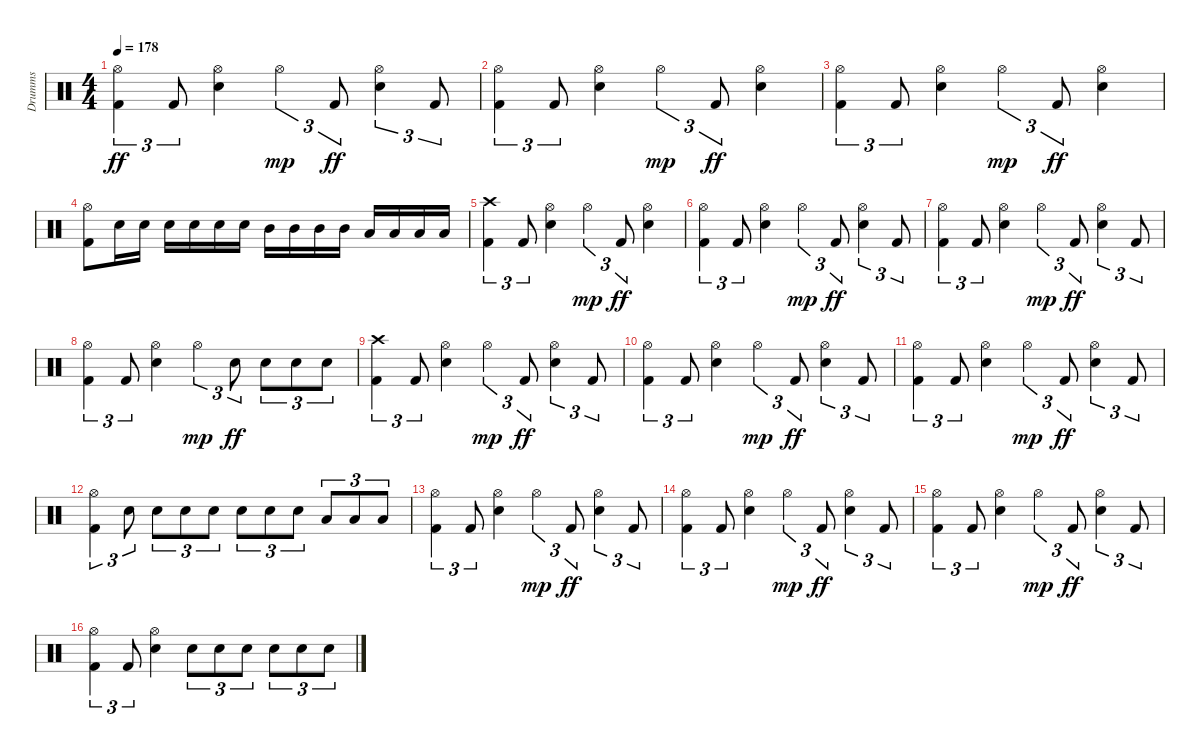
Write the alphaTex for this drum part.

\track ("Drumms" "Drumms") {instrument percussion}
\staff {score}
\articulation defaults
\ts (4 4)
\tempo 178
\clef neutral
\ks c
("Hi-Hat (open)" "Kick (hit) 2").4{tu (3 2) dy ff} "Kick (hit) 2".8{tu (3 2)} ("Hi-Hat (open)" "Electric Snare (hit)").4 "Hi-Hat (open)".4{tu (3 2) dy mp} "Kick (hit) 2".8{tu (3 2) dy ff} ("Hi-Hat (open)" "Electric Snare (hit)").4{tu (3 2)} "Kick (hit) 2".8{tu (3 2)} |
("Hi-Hat (open)" "Kick (hit) 2").4{tu (3 2)} "Kick (hit) 2".8{tu (3 2)} ("Hi-Hat (open)" "Electric Snare (hit)").4 "Hi-Hat (open)".4{tu (3 2) dy mp} "Kick (hit) 2".8{tu (3 2) dy ff} ("Hi-Hat (open)" "Electric Snare (hit)").4 |
("Hi-Hat (open)" "Kick (hit) 2").4{tu (3 2)} "Kick (hit) 2".8{tu (3 2)} ("Hi-Hat (open)" "Electric Snare (hit)").4 "Hi-Hat (open)".4{tu (3 2) dy mp} "Kick (hit) 2".8{tu (3 2) dy ff} ("Hi-Hat (open)" "Electric Snare (hit)").4 |
("Hi-Hat (open)" "Kick (hit) 2").8 "Electric Snare (hit)".16 "Electric Snare (hit)".16 "Electric Snare (hit)".16 "Electric Snare (hit)".16 "Electric Snare (hit)".16 "Electric Snare (hit)".16 "Mid Tom (hit)".16 "Mid Tom (hit)".16 "Mid Tom (hit)".16 "Mid Tom (hit)".16 "Low Tom (hit)".16 "Low Tom (hit)".16 "Low Tom (hit)".16 "Low Tom (hit)".16 |
("Crash high (hit)" "Kick (hit) 2").4{tu (3 2)} "Kick (hit) 2".8{tu (3 2)} ("Hi-Hat (open)" "Electric Snare (hit)").4 "Hi-Hat (open)".4{tu (3 2) dy mp} "Kick (hit) 2".8{tu (3 2) dy ff} ("Hi-Hat (open)" "Electric Snare (hit)").4 |
("Hi-Hat (open)" "Kick (hit) 2").4{tu (3 2)} "Kick (hit) 2".8{tu (3 2)} ("Hi-Hat (open)" "Electric Snare (hit)").4 "Hi-Hat (open)".4{tu (3 2) dy mp} "Kick (hit) 2".8{tu (3 2) dy ff} ("Hi-Hat (open)" "Electric Snare (hit)").4{tu (3 2)} "Kick (hit) 2".8{tu (3 2)} |
("Hi-Hat (open)" "Kick (hit) 2").4{tu (3 2)} "Kick (hit) 2".8{tu (3 2)} ("Hi-Hat (open)" "Electric Snare (hit)").4 "Hi-Hat (open)".4{tu (3 2) dy mp} "Kick (hit) 2".8{tu (3 2) dy ff} ("Hi-Hat (open)" "Electric Snare (hit)").4{tu (3 2)} "Kick (hit) 2".8{tu (3 2)} |
("Hi-Hat (open)" "Kick (hit) 2").4{tu (3 2)} "Kick (hit) 2".8{tu (3 2)} ("Hi-Hat (open)" "Electric Snare (hit)").4 "Hi-Hat (open)".4{tu (3 2) dy mp} "Electric Snare (hit)".8{tu (3 2) dy ff} "Electric Snare (hit)".8{tu (3 2)} "Electric Snare (hit)".8{tu (3 2)} "Electric Snare (hit)".8{tu (3 2)} |
("Crash high (hit)" "Kick (hit) 2").4{tu (3 2)} "Kick (hit) 2".8{tu (3 2)} ("Hi-Hat (open)" "Electric Snare (hit)").4 "Hi-Hat (open)".4{tu (3 2) dy mp} "Kick (hit) 2".8{tu (3 2) dy ff} ("Hi-Hat (open)" "Electric Snare (hit)").4{tu (3 2)} "Kick (hit) 2".8{tu (3 2)} |
("Hi-Hat (open)" "Kick (hit) 2").4{tu (3 2)} "Kick (hit) 2".8{tu (3 2)} ("Hi-Hat (open)" "Electric Snare (hit)").4 "Hi-Hat (open)".4{tu (3 2) dy mp} "Kick (hit) 2".8{tu (3 2) dy ff} ("Hi-Hat (open)" "Electric Snare (hit)").4{tu (3 2)} "Kick (hit) 2".8{tu (3 2)} |
("Hi-Hat (open)" "Kick (hit) 2").4{tu (3 2)} "Kick (hit) 2".8{tu (3 2)} ("Hi-Hat (open)" "Electric Snare (hit)").4 "Hi-Hat (open)".4{tu (3 2) dy mp} "Kick (hit) 2".8{tu (3 2) dy ff} ("Hi-Hat (open)" "Electric Snare (hit)").4{tu (3 2)} "Kick (hit) 2".8{tu (3 2)} |
("Hi-Hat (open)" "Kick (hit) 2").4{tu (3 2)} "Electric Snare (hit)".8{tu (3 2)} "Electric Snare (hit)".8{tu (3 2)} "Electric Snare (hit)".8{tu (3 2)} "Electric Snare (hit)".8{tu (3 2)} "Electric Snare (hit)".8{tu (3 2)} "Electric Snare (hit)".8{tu (3 2)} "Electric Snare (hit)".8{tu (3 2)} "Low Tom (hit)".8{tu (3 2)} "Low Tom (hit)".8{tu (3 2)} "Low Tom (hit)".8{tu (3 2)} |
("Hi-Hat (open)" "Kick (hit) 2").4{tu (3 2)} "Kick (hit) 2".8{tu (3 2)} ("Hi-Hat (open)" "Electric Snare (hit)").4 "Hi-Hat (open)".4{tu (3 2) dy mp} "Kick (hit) 2".8{tu (3 2) dy ff} ("Hi-Hat (open)" "Electric Snare (hit)").4{tu (3 2)} "Kick (hit) 2".8{tu (3 2)} |
("Hi-Hat (open)" "Kick (hit) 2").4{tu (3 2)} "Kick (hit) 2".8{tu (3 2)} ("Hi-Hat (open)" "Electric Snare (hit)").4 "Hi-Hat (open)".4{tu (3 2) dy mp} "Kick (hit) 2".8{tu (3 2) dy ff} ("Hi-Hat (open)" "Electric Snare (hit)").4{tu (3 2)} "Kick (hit) 2".8{tu (3 2)} |
("Hi-Hat (open)" "Kick (hit) 2").4{tu (3 2)} "Kick (hit) 2".8{tu (3 2)} ("Hi-Hat (open)" "Electric Snare (hit)").4 "Hi-Hat (open)".4{tu (3 2) dy mp} "Kick (hit) 2".8{tu (3 2) dy ff} ("Hi-Hat (open)" "Electric Snare (hit)").4{tu (3 2)} "Kick (hit) 2".8{tu (3 2)} |
("Hi-Hat (open)" "Kick (hit) 2").4{tu (3 2)} "Kick (hit) 2".8{tu (3 2)} ("Hi-Hat (open)" "Electric Snare (hit)").4 "Electric Snare (hit)".8{tu (3 2)} "Electric Snare (hit)".8{tu (3 2)} "Electric Snare (hit)".8{tu (3 2)} "Electric Snare (hit)".8{tu (3 2)} "Electric Snare (hit)".8{tu (3 2)} "Electric Snare (hit)".8{tu (3 2)}
